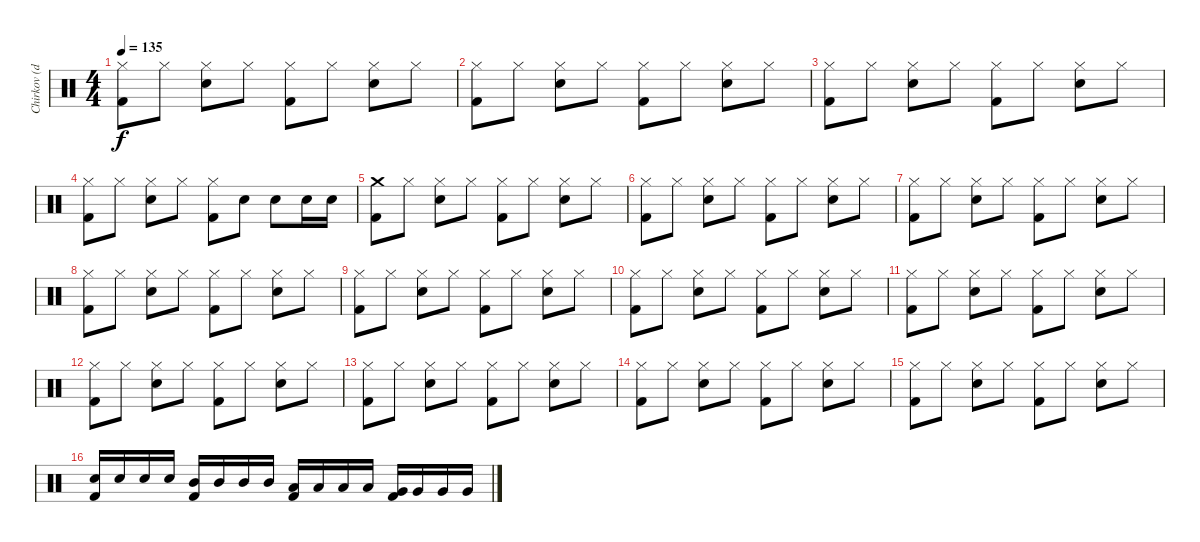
\track ("Chirkov (drums)" "Chirkov (d") {instrument percussion}
\staff {score}
\articulation defaults
\ts (4 4)
\tempo 135
\clef neutral
\ks c
("Hi-Hat (closed)" "Kick (hit) 2").8{dy f} "Hi-Hat (closed)".8 ("Hi-Hat (closed)" "Snare (hit) 2").8 "Hi-Hat (closed)".8 ("Hi-Hat (closed)" "Kick (hit) 2").8 "Hi-Hat (closed)".8 ("Hi-Hat (closed)" "Snare (hit) 2").8 "Hi-Hat (closed)".8 |
("Hi-Hat (closed)" "Kick (hit) 2").8 "Hi-Hat (closed)".8 ("Hi-Hat (closed)" "Snare (hit) 2").8 "Hi-Hat (closed)".8 ("Hi-Hat (closed)" "Kick (hit) 2").8 "Hi-Hat (closed)".8 ("Hi-Hat (closed)" "Snare (hit) 2").8 "Hi-Hat (closed)".8 |
("Hi-Hat (closed)" "Kick (hit) 2").8 "Hi-Hat (closed)".8 ("Hi-Hat (closed)" "Snare (hit) 2").8 "Hi-Hat (closed)".8 ("Hi-Hat (closed)" "Kick (hit) 2").8 "Hi-Hat (closed)".8 ("Hi-Hat (closed)" "Snare (hit) 2").8 "Hi-Hat (closed)".8 |
("Hi-Hat (closed)" "Kick (hit) 2").8 "Hi-Hat (closed)".8 ("Hi-Hat (closed)" "Snare (hit) 2").8 "Hi-Hat (closed)".8 ("Hi-Hat (closed)" "Kick (hit) 2").8 "Snare (hit) 2".8 "Snare (hit) 2".8 "Snare (hit) 2".16 "Snare (hit) 2".16 |
("Crash medium (hit)" "Kick (hit) 2").8 "Hi-Hat (closed)".8 ("Hi-Hat (closed)" "Snare (hit) 2").8 "Hi-Hat (closed)".8 ("Hi-Hat (closed)" "Kick (hit) 2").8 "Hi-Hat (closed)".8 ("Hi-Hat (closed)" "Snare (hit) 2").8 "Hi-Hat (closed)".8 |
("Hi-Hat (closed)" "Kick (hit) 2").8 "Hi-Hat (closed)".8 ("Hi-Hat (closed)" "Snare (hit) 2").8 "Hi-Hat (closed)".8 ("Hi-Hat (closed)" "Kick (hit) 2").8 "Hi-Hat (closed)".8 ("Hi-Hat (closed)" "Snare (hit) 2").8 "Hi-Hat (closed)".8 |
("Hi-Hat (closed)" "Kick (hit) 2").8 "Hi-Hat (closed)".8 ("Hi-Hat (closed)" "Snare (hit) 2").8 "Hi-Hat (closed)".8 ("Hi-Hat (closed)" "Kick (hit) 2").8 "Hi-Hat (closed)".8 ("Hi-Hat (closed)" "Snare (hit) 2").8 "Hi-Hat (closed)".8 |
("Hi-Hat (closed)" "Kick (hit) 2").8 "Hi-Hat (closed)".8 ("Hi-Hat (closed)" "Snare (hit) 2").8 "Hi-Hat (closed)".8 ("Hi-Hat (closed)" "Kick (hit) 2").8 "Hi-Hat (closed)".8 ("Hi-Hat (closed)" "Snare (hit) 2").8 "Hi-Hat (closed)".8 |
("Hi-Hat (closed)" "Kick (hit) 2").8 "Hi-Hat (closed)".8 ("Hi-Hat (closed)" "Snare (hit) 2").8 "Hi-Hat (closed)".8 ("Hi-Hat (closed)" "Kick (hit) 2").8 "Hi-Hat (closed)".8 ("Hi-Hat (closed)" "Snare (hit) 2").8 "Hi-Hat (closed)".8 |
("Hi-Hat (closed)" "Kick (hit) 2").8 "Hi-Hat (closed)".8 ("Hi-Hat (closed)" "Snare (hit) 2").8 "Hi-Hat (closed)".8 ("Hi-Hat (closed)" "Kick (hit) 2").8 "Hi-Hat (closed)".8 ("Hi-Hat (closed)" "Snare (hit) 2").8 "Hi-Hat (closed)".8 |
("Hi-Hat (closed)" "Kick (hit) 2").8 "Hi-Hat (closed)".8 ("Hi-Hat (closed)" "Snare (hit) 2").8 "Hi-Hat (closed)".8 ("Hi-Hat (closed)" "Kick (hit) 2").8 "Hi-Hat (closed)".8 ("Hi-Hat (closed)" "Snare (hit) 2").8 "Hi-Hat (closed)".8 |
("Hi-Hat (closed)" "Kick (hit) 2").8 "Hi-Hat (closed)".8 ("Hi-Hat (closed)" "Snare (hit) 2").8 "Hi-Hat (closed)".8 ("Hi-Hat (closed)" "Kick (hit) 2").8 "Hi-Hat (closed)".8 ("Hi-Hat (closed)" "Snare (hit) 2").8 "Hi-Hat (closed)".8 |
("Hi-Hat (closed)" "Kick (hit) 2").8 "Hi-Hat (closed)".8 ("Hi-Hat (closed)" "Snare (hit) 2").8 "Hi-Hat (closed)".8 ("Hi-Hat (closed)" "Kick (hit) 2").8 "Hi-Hat (closed)".8 ("Hi-Hat (closed)" "Snare (hit) 2").8 "Hi-Hat (closed)".8 |
("Hi-Hat (closed)" "Kick (hit) 2").8 "Hi-Hat (closed)".8 ("Hi-Hat (closed)" "Snare (hit) 2").8 "Hi-Hat (closed)".8 ("Hi-Hat (closed)" "Kick (hit) 2").8 "Hi-Hat (closed)".8 ("Hi-Hat (closed)" "Snare (hit) 2").8 "Hi-Hat (closed)".8 |
("Hi-Hat (closed)" "Kick (hit) 2").8 "Hi-Hat (closed)".8 ("Hi-Hat (closed)" "Snare (hit) 2").8 "Hi-Hat (closed)".8 ("Hi-Hat (closed)" "Kick (hit) 2").8 "Hi-Hat (closed)".8 ("Hi-Hat (closed)" "Snare (hit) 2").8 "Hi-Hat (closed)".8 |
("Snare (hit) 2" "Kick (hit) 2").16 "Snare (hit) 2".16 "Snare (hit) 2".16 "Snare (hit) 2".16 ("Mid Tom (hit)" "Kick (hit) 2").16 "Mid Tom (hit)".16 "Mid Tom (hit)".16 "Mid Tom (hit)".16 ("Low Tom (hit)" "Kick (hit) 2").16 "Low Tom (hit)".16 "Low Tom (hit)".16 "Low Tom (hit)".16 ("Very Low Tom (hit)" "Kick (hit) 2").16 "Very Low Tom (hit)".16 "Very Low Tom (hit)".16 "Very Low Tom (hit)".16
